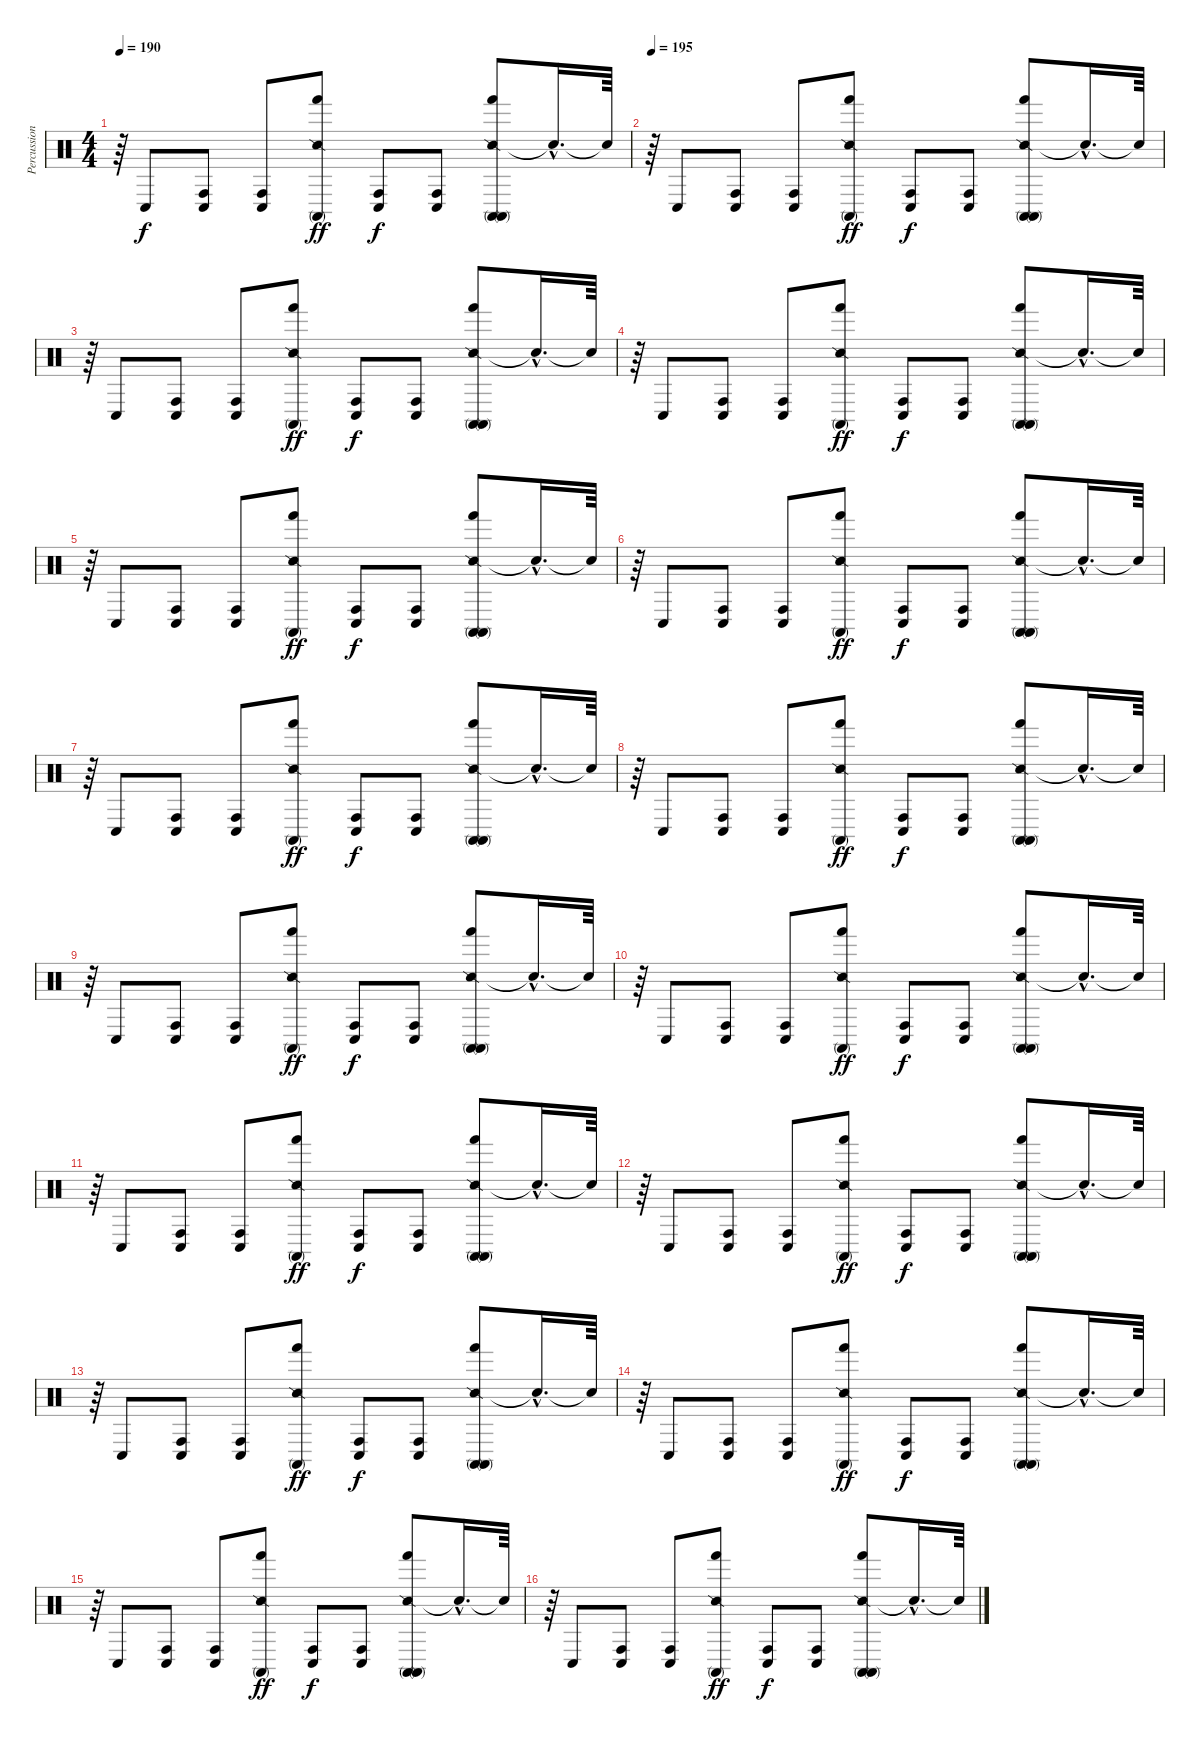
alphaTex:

\track ("Percussion" "Percussion") {instrument percussion}
\staff {score}
\articulation defaults
\ts (4 4)
\tempo 190
\clef neutral
\ks c
r.64{dy f} "Conga low (hit)".8 ("Conga high (hit)" "Conga low (hit)").8 ("Conga high (hit)" "Conga low (hit)").8 ("Snare (side stick) 2" "Hand (hit)" "Conga high (mute)").8{dy ff} ("Conga high (hit)" "Conga low (hit)").8{dy f} ("Conga high (hit)" "Conga low (hit)").8 ("Snare (side stick) 2" "Hand (hit)" "Conga high (mute)" "Conga high (mute)").8 "Snare (hit)"{hac t}.16{d} "Snare (hit)"{t}.64 |
\tempo 195
r.64 "Conga low (hit)".8 ("Conga high (hit)" "Conga low (hit)").8 ("Conga high (hit)" "Conga low (hit)").8 ("Snare (side stick) 2" "Hand (hit)" "Conga high (mute)").8{dy ff} ("Conga high (hit)" "Conga low (hit)").8{dy f} ("Conga high (hit)" "Conga low (hit)").8 ("Snare (side stick) 2" "Hand (hit)" "Conga high (mute)" "Conga high (mute)").8 "Snare (hit)"{hac t}.16{d} "Snare (hit)"{t}.64 |
r.64 "Conga low (hit)".8 ("Conga high (hit)" "Conga low (hit)").8 ("Conga high (hit)" "Conga low (hit)").8 ("Snare (side stick) 2" "Hand (hit)" "Conga high (mute)").8{dy ff} ("Conga high (hit)" "Conga low (hit)").8{dy f} ("Conga high (hit)" "Conga low (hit)").8 ("Snare (side stick) 2" "Hand (hit)" "Conga high (mute)" "Conga high (mute)").8 "Snare (hit)"{hac t}.16{d} "Snare (hit)"{t}.64 |
r.64 "Conga low (hit)".8 ("Conga high (hit)" "Conga low (hit)").8 ("Conga high (hit)" "Conga low (hit)").8 ("Snare (side stick) 2" "Hand (hit)" "Conga high (mute)").8{dy ff} ("Conga high (hit)" "Conga low (hit)").8{dy f} ("Conga high (hit)" "Conga low (hit)").8 ("Snare (side stick) 2" "Hand (hit)" "Conga high (mute)" "Conga high (mute)").8 "Snare (hit)"{hac t}.16{d} "Snare (hit)"{t}.64 |
r.64 "Conga low (hit)".8 ("Conga high (hit)" "Conga low (hit)").8 ("Conga high (hit)" "Conga low (hit)").8 ("Snare (side stick) 2" "Hand (hit)" "Conga high (mute)").8{dy ff} ("Conga high (hit)" "Conga low (hit)").8{dy f} ("Conga high (hit)" "Conga low (hit)").8 ("Snare (side stick) 2" "Hand (hit)" "Conga high (mute)" "Conga high (mute)").8 "Snare (hit)"{hac t}.16{d} "Snare (hit)"{t}.64 |
r.64 "Conga low (hit)".8 ("Conga high (hit)" "Conga low (hit)").8 ("Conga high (hit)" "Conga low (hit)").8 ("Snare (side stick) 2" "Hand (hit)" "Conga high (mute)").8{dy ff} ("Conga high (hit)" "Conga low (hit)").8{dy f} ("Conga high (hit)" "Conga low (hit)").8 ("Snare (side stick) 2" "Hand (hit)" "Conga high (mute)" "Conga high (mute)").8 "Snare (hit)"{hac t}.16{d} "Snare (hit)"{t}.64 |
r.64 "Conga low (hit)".8 ("Conga high (hit)" "Conga low (hit)").8 ("Conga high (hit)" "Conga low (hit)").8 ("Snare (side stick) 2" "Hand (hit)" "Conga high (mute)").8{dy ff} ("Conga high (hit)" "Conga low (hit)").8{dy f} ("Conga high (hit)" "Conga low (hit)").8 ("Snare (side stick) 2" "Hand (hit)" "Conga high (mute)" "Conga high (mute)").8 "Snare (hit)"{hac t}.16{d} "Snare (hit)"{t}.64 |
r.64 "Conga low (hit)".8 ("Conga high (hit)" "Conga low (hit)").8 ("Conga high (hit)" "Conga low (hit)").8 ("Snare (side stick) 2" "Hand (hit)" "Conga high (mute)").8{dy ff} ("Conga high (hit)" "Conga low (hit)").8{dy f} ("Conga high (hit)" "Conga low (hit)").8 ("Snare (side stick) 2" "Hand (hit)" "Conga high (mute)" "Conga high (mute)").8 "Snare (hit)"{hac t}.16{d} "Snare (hit)"{t}.64 |
r.64 "Conga low (hit)".8 ("Conga high (hit)" "Conga low (hit)").8 ("Conga high (hit)" "Conga low (hit)").8 ("Snare (side stick) 2" "Hand (hit)" "Conga high (mute)").8{dy ff} ("Conga high (hit)" "Conga low (hit)").8{dy f} ("Conga high (hit)" "Conga low (hit)").8 ("Snare (side stick) 2" "Hand (hit)" "Conga high (mute)" "Conga high (mute)").8 "Snare (hit)"{hac t}.16{d} "Snare (hit)"{t}.64 |
r.64 "Conga low (hit)".8 ("Conga high (hit)" "Conga low (hit)").8 ("Conga high (hit)" "Conga low (hit)").8 ("Snare (side stick) 2" "Hand (hit)" "Conga high (mute)").8{dy ff} ("Conga high (hit)" "Conga low (hit)").8{dy f} ("Conga high (hit)" "Conga low (hit)").8 ("Snare (side stick) 2" "Hand (hit)" "Conga high (mute)" "Conga high (mute)").8 "Snare (hit)"{hac t}.16{d} "Snare (hit)"{t}.64 |
r.64 "Conga low (hit)".8 ("Conga high (hit)" "Conga low (hit)").8 ("Conga high (hit)" "Conga low (hit)").8 ("Snare (side stick) 2" "Hand (hit)" "Conga high (mute)").8{dy ff} ("Conga high (hit)" "Conga low (hit)").8{dy f} ("Conga high (hit)" "Conga low (hit)").8 ("Snare (side stick) 2" "Hand (hit)" "Conga high (mute)" "Conga high (mute)").8 "Snare (hit)"{hac t}.16{d} "Snare (hit)"{t}.64 |
r.64 "Conga low (hit)".8 ("Conga high (hit)" "Conga low (hit)").8 ("Conga high (hit)" "Conga low (hit)").8 ("Snare (side stick) 2" "Hand (hit)" "Conga high (mute)").8{dy ff} ("Conga high (hit)" "Conga low (hit)").8{dy f} ("Conga high (hit)" "Conga low (hit)").8 ("Snare (side stick) 2" "Hand (hit)" "Conga high (mute)" "Conga high (mute)").8 "Snare (hit)"{hac t}.16{d} "Snare (hit)"{t}.64 |
r.64 "Conga low (hit)".8 ("Conga high (hit)" "Conga low (hit)").8 ("Conga high (hit)" "Conga low (hit)").8 ("Snare (side stick) 2" "Hand (hit)" "Conga high (mute)").8{dy ff} ("Conga high (hit)" "Conga low (hit)").8{dy f} ("Conga high (hit)" "Conga low (hit)").8 ("Snare (side stick) 2" "Hand (hit)" "Conga high (mute)" "Conga high (mute)").8 "Snare (hit)"{hac t}.16{d} "Snare (hit)"{t}.64 |
r.64 "Conga low (hit)".8 ("Conga high (hit)" "Conga low (hit)").8 ("Conga high (hit)" "Conga low (hit)").8 ("Snare (side stick) 2" "Hand (hit)" "Conga high (mute)").8{dy ff} ("Conga high (hit)" "Conga low (hit)").8{dy f} ("Conga high (hit)" "Conga low (hit)").8 ("Snare (side stick) 2" "Hand (hit)" "Conga high (mute)" "Conga high (mute)").8 "Snare (hit)"{hac t}.16{d} "Snare (hit)"{t}.64 |
r.64 "Conga low (hit)".8 ("Conga high (hit)" "Conga low (hit)").8 ("Conga high (hit)" "Conga low (hit)").8 ("Snare (side stick) 2" "Hand (hit)" "Conga high (mute)").8{dy ff} ("Conga high (hit)" "Conga low (hit)").8{dy f} ("Conga high (hit)" "Conga low (hit)").8 ("Snare (side stick) 2" "Hand (hit)" "Conga high (mute)" "Conga high (mute)").8 "Snare (hit)"{hac t}.16{d} "Snare (hit)"{t}.64 |
r.64 "Conga low (hit)".8 ("Conga high (hit)" "Conga low (hit)").8 ("Conga high (hit)" "Conga low (hit)").8 ("Snare (side stick) 2" "Hand (hit)" "Conga high (mute)").8{dy ff} ("Conga high (hit)" "Conga low (hit)").8{dy f} ("Conga high (hit)" "Conga low (hit)").8 ("Snare (side stick) 2" "Hand (hit)" "Conga high (mute)" "Conga high (mute)").8 "Snare (hit)"{hac t}.16{d} "Snare (hit)"{t}.64
